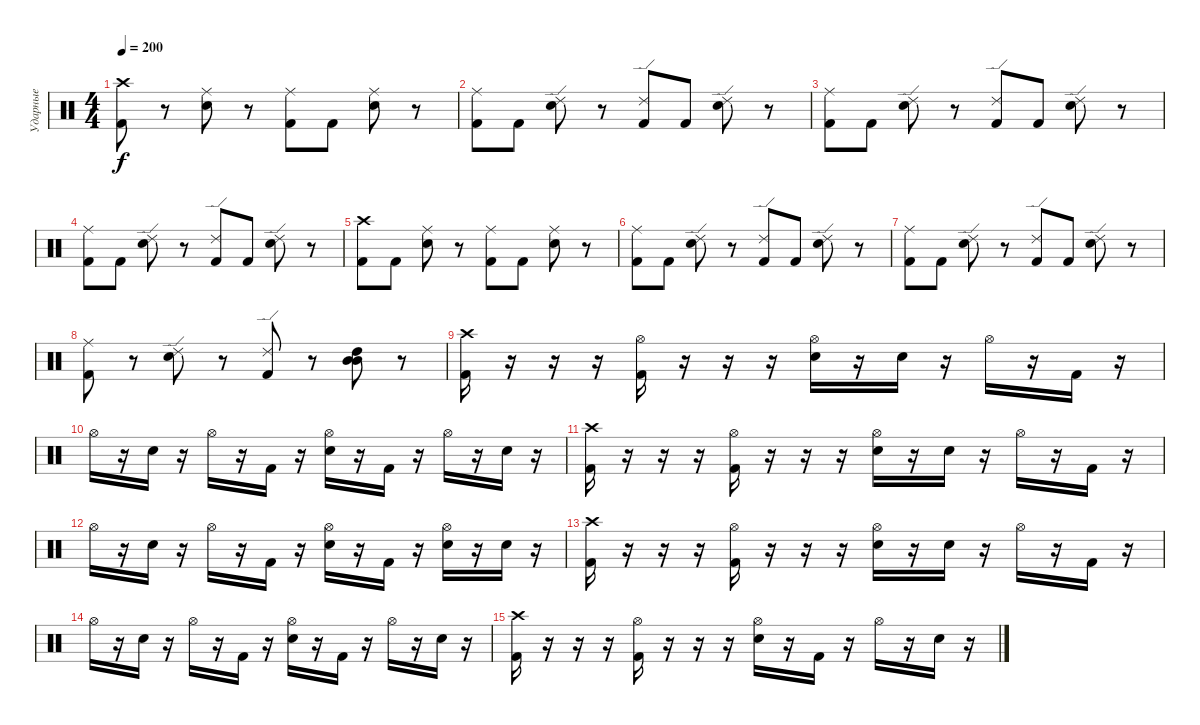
\track ("Ударные" "Ударные") {instrument percussion}
\staff {score}
\articulation defaults
\ts (4 4)
\tempo 200
\clef neutral
\ks c
("Crash high (hit)" "Kick (hit) 2").8{dy f} r.8 ("Ride (middle)" "Electric Snare (hit)").8 r.8 ("Ride (middle)" "Kick (hit) 2").8 "Kick (hit) 2".8 ("Ride (middle)" "Electric Snare (hit)").8 r.8 |
("Ride (middle)" "Kick (hit) 2").8 "Kick (hit) 2".8 ("Ride (edge) 2" "Electric Snare (hit)").8 r.8 ("Ride (edge) 2" "Kick (hit) 2").8 "Kick (hit) 2".8 ("Ride (edge) 2" "Electric Snare (hit)").8 r.8 |
("Ride (middle)" "Kick (hit) 2").8 "Kick (hit) 2".8 ("Ride (edge) 2" "Electric Snare (hit)").8 r.8 ("Ride (edge) 2" "Kick (hit) 2").8 "Kick (hit) 2".8 ("Ride (edge) 2" "Electric Snare (hit)").8 r.8 |
("Ride (middle)" "Kick (hit) 2").8 "Kick (hit) 2".8 ("Ride (edge) 2" "Electric Snare (hit)").8 r.8 ("Ride (edge) 2" "Kick (hit) 2").8 "Kick (hit) 2".8 ("Ride (edge) 2" "Electric Snare (hit)").8 r.8 |
("Crash high (hit)" "Kick (hit) 2").8 "Kick (hit) 2".8 ("Ride (middle)" "Electric Snare (hit)").8 r.8 ("Ride (middle)" "Kick (hit) 2").8 "Kick (hit) 2".8 ("Ride (middle)" "Electric Snare (hit)").8 r.8 |
("Ride (middle)" "Kick (hit) 2").8 "Kick (hit) 2".8 ("Ride (edge) 2" "Electric Snare (hit)").8 r.8 ("Ride (edge) 2" "Kick (hit) 2").8 "Kick (hit) 2".8 ("Ride (edge) 2" "Electric Snare (hit)").8 r.8 |
("Ride (middle)" "Kick (hit) 2").8 "Kick (hit) 2".8 ("Ride (edge) 2" "Electric Snare (hit)").8 r.8 ("Ride (edge) 2" "Kick (hit) 2").8 "Kick (hit) 2".8 ("Ride (edge) 2" "Electric Snare (hit)").8 r.8 |
("Ride (middle)" "Kick (hit) 2").8 r.8 ("Ride (edge) 2" "Electric Snare (hit)").8 r.8 ("Ride (edge) 2" "Kick (hit) 2").8 r.8 ("Mid Tom (hit)" "High Tom (hit)" "Mid Tom (hit)").8 r.8 |
("Crash high (hit)" "Kick (hit) 2").16 r.16 r.16 r.16 ("Hi-Hat (open)" "Kick (hit) 2").16 r.16 r.16 r.16 ("Hi-Hat (open)" "Electric Snare (hit)").16 r.16 "Electric Snare (hit)".16 r.16 "Hi-Hat (open)".16 r.16 "Kick (hit) 2".16 r.16 |
"Hi-Hat (open)".16 r.16 "Electric Snare (hit)".16 r.16 "Hi-Hat (open)".16 r.16 "Kick (hit) 2".16 r.16 ("Hi-Hat (open)" "Electric Snare (hit)").16 r.16 "Kick (hit) 2".16 r.16 "Hi-Hat (open)".16 r.16 "Electric Snare (hit)".16 r.16 |
("Crash high (hit)" "Kick (hit) 2").16 r.16 r.16 r.16 ("Hi-Hat (open)" "Kick (hit) 2").16 r.16 r.16 r.16 ("Hi-Hat (open)" "Electric Snare (hit)").16 r.16 "Electric Snare (hit)".16 r.16 "Hi-Hat (open)".16 r.16 "Kick (hit) 2".16 r.16 |
"Hi-Hat (open)".16 r.16 "Electric Snare (hit)".16 r.16 "Hi-Hat (open)".16 r.16 "Kick (hit) 2".16 r.16 ("Hi-Hat (open)" "Electric Snare (hit)").16 r.16 "Kick (hit) 2".16 r.16 ("Hi-Hat (open)" "Electric Snare (hit)").16 r.16 "Electric Snare (hit)".16 r.16 |
("Crash high (hit)" "Kick (hit) 2").16 r.16 r.16 r.16 ("Hi-Hat (open)" "Kick (hit) 2").16 r.16 r.16 r.16 ("Hi-Hat (open)" "Electric Snare (hit)").16 r.16 "Electric Snare (hit)".16 r.16 "Hi-Hat (open)".16 r.16 "Kick (hit) 2".16 r.16 |
"Hi-Hat (open)".16 r.16 "Electric Snare (hit)".16 r.16 "Hi-Hat (open)".16 r.16 "Kick (hit) 2".16 r.16 ("Hi-Hat (open)" "Electric Snare (hit)").16 r.16 "Kick (hit) 2".16 r.16 "Hi-Hat (open)".16 r.16 "Electric Snare (hit)".16 r.16 |
("Crash high (hit)" "Kick (hit) 2").16 r.16 r.16 r.16 ("Hi-Hat (open)" "Kick (hit) 2").16 r.16 r.16 r.16 ("Hi-Hat (open)" "Electric Snare (hit)").16 r.16 "Kick (hit) 2".16 r.16 "Hi-Hat (open)".16 r.16 "Electric Snare (hit)".16 r.16
